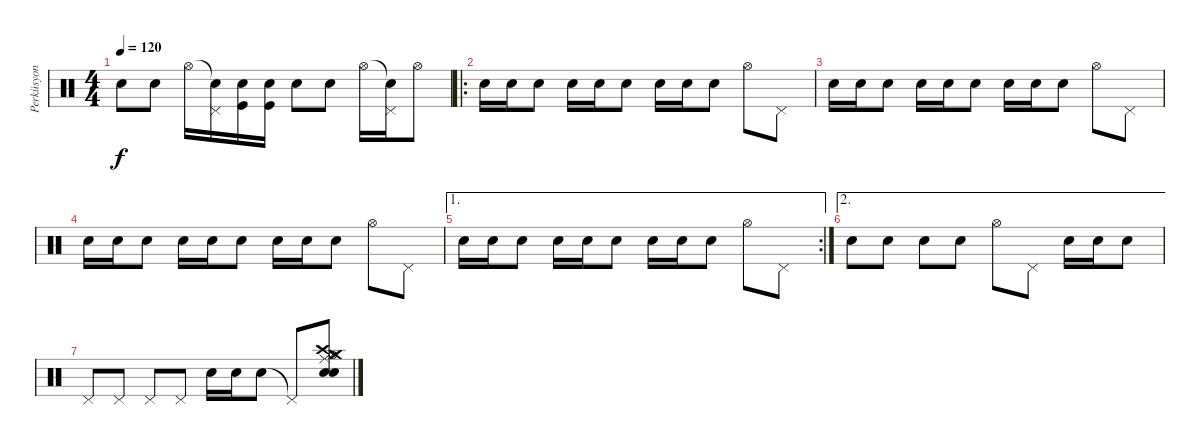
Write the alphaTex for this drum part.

\track ("Perküsyon" "Perküsyon") {instrument percussion}
\staff {score}
\articulation defaults
\ts (4 4)
\tempo 120
\clef neutral
\ks c "Snare (hit) 2".8{dy f} "Snare (hit) 2".8 "Hi-Hat (open)".16
("Snare (hit)"{t} "Pedal Hi-Hat (hit)").16 ("Snare (hit) 2" "Kick (hit)").16 ("Snare (hit) 2" "Kick (hit)").16 "Snare (hit) 2".8 "Snare (hit) 2".8 "Hi-Hat (open)".16 ("Snare (hit)"{t} "Pedal Hi-Hat (hit)").16 "Hi-Hat (open)".8 |
\ro "Snare (hit) 2".16 "Snare (hit) 2".16 "Electric Snare (hit)".8 "Snare (hit) 2".16 "Snare (hit) 2".16 "Electric Snare (hit)".8 "Snare (hit) 2".16 "Snare (hit) 2".16 "Electric Snare (hit)".8 "Hi-Hat (open)".8 "Pedal Hi-Hat (hit)".8
|
"Snare (hit) 2".16 "Snare (hit) 2".16 "Electric Snare (hit)".8 "Snare (hit) 2".16 "Snare (hit) 2".16 "Electric Snare (hit)".8 "Snare (hit) 2".16 "Snare (hit) 2".16 "Electric Snare (hit)".8 "Hi-Hat (open)".8 "Pedal Hi-Hat (hit)".8 |
"Snare (hit) 2".16 "Snare (hit) 2".16 "Electric Snare (hit)".8 "Snare (hit) 2".16 "Snare (hit) 2".16 "Electric Snare (hit)".8 "Snare (hit) 2".16 "Snare (hit) 2".16 "Electric Snare (hit)".8 "Hi-Hat (open)".8 "Pedal Hi-Hat (hit)".8 |
\ae 1
\rc 2 "Snare (hit) 2".16 "Snare (hit) 2".16 "Electric Snare (hit)".8 "Snare (hit) 2".16 "Snare (hit) 2".16 "Electric Snare (hit)".8 "Snare (hit) 2".16 "Snare (hit) 2".16 "Electric Snare (hit)".8 "Hi-Hat (open)".8 "Pedal Hi-Hat (hit)".8
|
\ae 2 "Snare (hit) 2".8 "Electric Snare (hit)".8 "Snare (hit) 2".8 "Electric Snare (hit)".8 "Hi-Hat (open)".8 "Pedal Hi-Hat (hit)".8 "Snare (hit) 2".16 "Snare (hit) 2".16 "Electric Snare (hit)"{pm}.8
|
"Pedal Hi-Hat (hit)".8 "Pedal Hi-Hat (hit)".8 "Pedal Hi-Hat (hit)".8 "Pedal Hi-Hat (hit)".8 "Snare (hit) 2".16 "Snare (hit) 2".16 "Electric Snare (hit)".8 "Pedal Hi-Hat (hit)"{t}.8 ("Crash medium (hit)" "Crash high (hit)" "Hi-Hat (open)" "Snare (hit) 2" "Electric Snare (hit)" "Ride (middle)").8
